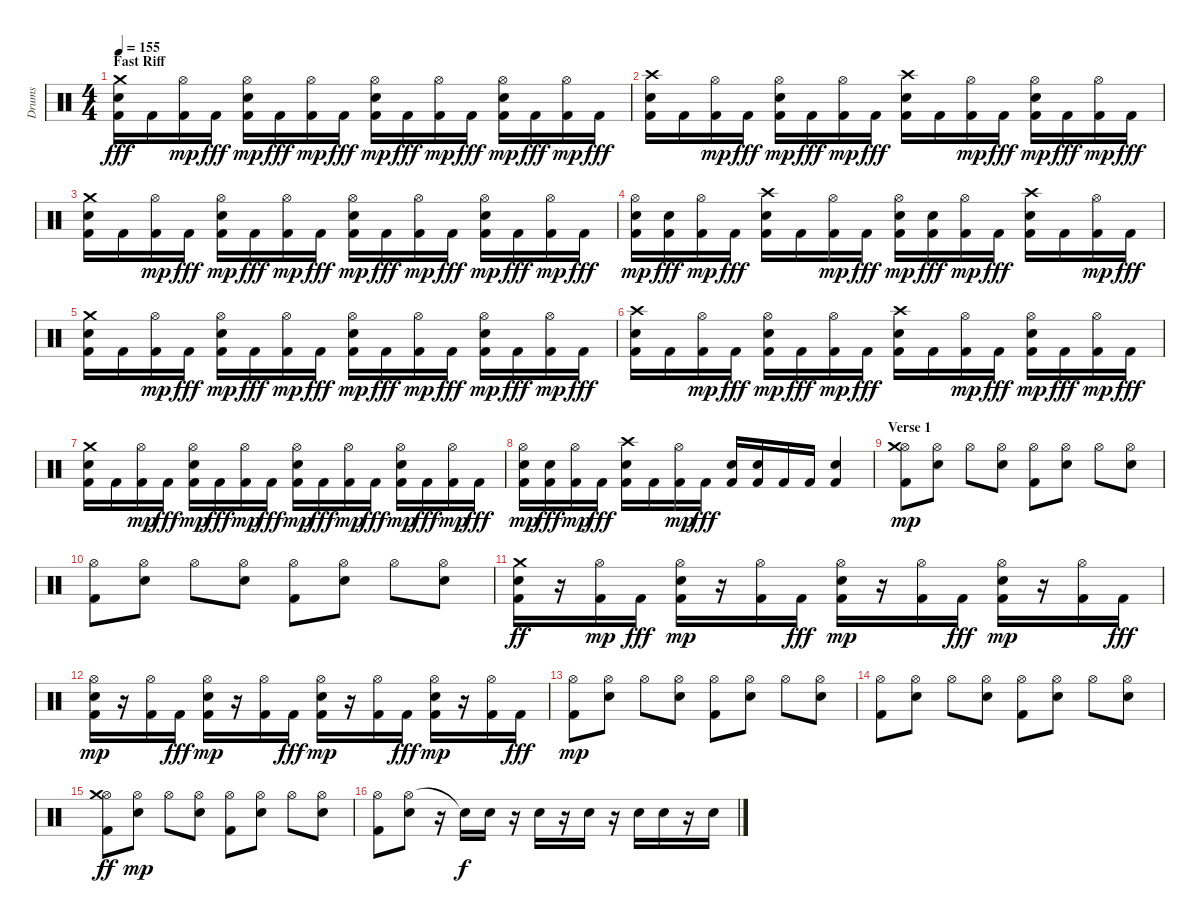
\track ("Drums" "Drums") {instrument percussion}
\staff {score}
\articulation defaults
\ts (4 4)
\section ("" "Fast Riff")
\tempo 155
\clef neutral
\ks c
("Kick (hit) 2" "Snare (hit) 2" "Crash medium (hit)").16{dy fff} "Kick (hit) 2".16 ("Kick (hit) 2" "Hi-Hat (open)").16{dy mp} "Kick (hit) 2".16{dy fff} ("Kick (hit) 2" "Hi-Hat (open)" "Snare (hit) 2").16{dy mp} "Kick (hit) 2".16{dy fff} ("Kick (hit) 2" "Hi-Hat (open)").16{dy mp} "Kick (hit) 2".16{dy fff} ("Kick (hit) 2" "Hi-Hat (open)" "Snare (hit) 2").16{dy mp} "Kick (hit) 2".16{dy fff} ("Kick (hit) 2" "Hi-Hat (open)").16{dy mp} "Kick (hit) 2".16{dy fff} ("Kick (hit) 2" "Hi-Hat (open)" "Snare (hit) 2").16{dy mp} "Kick (hit) 2".16{dy fff} ("Kick (hit) 2" "Hi-Hat (open)").16{dy mp} "Kick (hit) 2".16{dy fff} |
("Kick (hit) 2" "Snare (hit) 2" "Crash high (hit)").16 "Kick (hit) 2".16 ("Kick (hit) 2" "Hi-Hat (open)").16{dy mp} "Kick (hit) 2".16{dy fff} ("Kick (hit) 2" "Hi-Hat (open)" "Snare (hit) 2").16{dy mp} "Kick (hit) 2".16{dy fff} ("Kick (hit) 2" "Hi-Hat (open)").16{dy mp} "Kick (hit) 2".16{dy fff} ("Kick (hit) 2" "Snare (hit) 2" "Crash high (hit)").16 "Kick (hit) 2".16 ("Kick (hit) 2" "Hi-Hat (open)").16{dy mp} "Kick (hit) 2".16{dy fff} ("Kick (hit) 2" "Hi-Hat (open)" "Snare (hit) 2").16{dy mp} "Kick (hit) 2".16{dy fff} ("Kick (hit) 2" "Hi-Hat (open)").16{dy mp} "Kick (hit) 2".16{dy fff} |
("Kick (hit) 2" "Snare (hit) 2" "Crash medium (hit)").16 "Kick (hit) 2".16 ("Kick (hit) 2" "Hi-Hat (open)").16{dy mp} "Kick (hit) 2".16{dy fff} ("Kick (hit) 2" "Hi-Hat (open)" "Snare (hit) 2").16{dy mp} "Kick (hit) 2".16{dy fff} ("Kick (hit) 2" "Hi-Hat (open)").16{dy mp} "Kick (hit) 2".16{dy fff} ("Kick (hit) 2" "Hi-Hat (open)" "Snare (hit) 2").16{dy mp} "Kick (hit) 2".16{dy fff} ("Kick (hit) 2" "Hi-Hat (open)").16{dy mp} "Kick (hit) 2".16{dy fff} ("Kick (hit) 2" "Hi-Hat (open)" "Snare (hit) 2").16{dy mp} "Kick (hit) 2".16{dy fff} ("Kick (hit) 2" "Hi-Hat (open)").16{dy mp} "Kick (hit) 2".16{dy fff} |
("Kick (hit) 2" "Hi-Hat (open)" "Snare (hit) 2").16{dy mp} ("Kick (hit) 2" "Snare (hit) 2").16{dy fff} ("Kick (hit) 2" "Hi-Hat (open)").16{dy mp} "Kick (hit) 2".16{dy fff} ("Kick (hit) 2" "Snare (hit) 2" "Crash high (hit)").16 "Kick (hit) 2".16 ("Kick (hit) 2" "Hi-Hat (open)").16{dy mp} "Kick (hit) 2".16{dy fff} ("Kick (hit) 2" "Hi-Hat (open)" "Snare (hit) 2").16{dy mp} ("Kick (hit) 2" "Snare (hit) 2").16{dy fff} ("Kick (hit) 2" "Hi-Hat (open)").16{dy mp} "Kick (hit) 2".16{dy fff} ("Kick (hit) 2" "Snare (hit) 2" "Crash high (hit)").16 "Kick (hit) 2".16 ("Kick (hit) 2" "Hi-Hat (open)").16{dy mp} "Kick (hit) 2".16{dy fff} |
("Kick (hit) 2" "Snare (hit) 2" "Crash medium (hit)").16 "Kick (hit) 2".16 ("Kick (hit) 2" "Hi-Hat (open)").16{dy mp} "Kick (hit) 2".16{dy fff} ("Kick (hit) 2" "Hi-Hat (open)" "Snare (hit) 2").16{dy mp} "Kick (hit) 2".16{dy fff} ("Kick (hit) 2" "Hi-Hat (open)").16{dy mp} "Kick (hit) 2".16{dy fff} ("Kick (hit) 2" "Hi-Hat (open)" "Snare (hit) 2").16{dy mp} "Kick (hit) 2".16{dy fff} ("Kick (hit) 2" "Hi-Hat (open)").16{dy mp} "Kick (hit) 2".16{dy fff} ("Kick (hit) 2" "Hi-Hat (open)" "Snare (hit) 2").16{dy mp} "Kick (hit) 2".16{dy fff} ("Kick (hit) 2" "Hi-Hat (open)").16{dy mp} "Kick (hit) 2".16{dy fff} |
("Kick (hit) 2" "Snare (hit) 2" "Crash high (hit)").16 "Kick (hit) 2".16 ("Kick (hit) 2" "Hi-Hat (open)").16{dy mp} "Kick (hit) 2".16{dy fff} ("Kick (hit) 2" "Hi-Hat (open)" "Snare (hit) 2").16{dy mp} "Kick (hit) 2".16{dy fff} ("Kick (hit) 2" "Hi-Hat (open)").16{dy mp} "Kick (hit) 2".16{dy fff} ("Kick (hit) 2" "Snare (hit) 2" "Crash high (hit)").16 "Kick (hit) 2".16 ("Kick (hit) 2" "Hi-Hat (open)").16{dy mp} "Kick (hit) 2".16{dy fff} ("Kick (hit) 2" "Hi-Hat (open)" "Snare (hit) 2").16{dy mp} "Kick (hit) 2".16{dy fff} ("Kick (hit) 2" "Hi-Hat (open)").16{dy mp} "Kick (hit) 2".16{dy fff} |
("Kick (hit) 2" "Snare (hit) 2" "Crash medium (hit)").16 "Kick (hit) 2".16 ("Kick (hit) 2" "Hi-Hat (open)").16{dy mp} "Kick (hit) 2".16{dy fff} ("Kick (hit) 2" "Hi-Hat (open)" "Snare (hit) 2").16{dy mp} "Kick (hit) 2".16{dy fff} ("Kick (hit) 2" "Hi-Hat (open)").16{dy mp} "Kick (hit) 2".16{dy fff} ("Kick (hit) 2" "Hi-Hat (open)" "Snare (hit) 2").16{dy mp} "Kick (hit) 2".16{dy fff} ("Kick (hit) 2" "Hi-Hat (open)").16{dy mp} "Kick (hit) 2".16{dy fff} ("Kick (hit) 2" "Hi-Hat (open)" "Snare (hit) 2").16{dy mp} "Kick (hit) 2".16{dy fff} ("Kick (hit) 2" "Hi-Hat (open)").16{dy mp} "Kick (hit) 2".16{dy fff} |
("Kick (hit) 2" "Hi-Hat (open)" "Snare (hit) 2").16{dy mp} ("Kick (hit) 2" "Snare (hit) 2").16{dy fff} ("Kick (hit) 2" "Hi-Hat (open)").16{dy mp} "Kick (hit) 2".16{dy fff} ("Kick (hit) 2" "Snare (hit) 2" "Crash high (hit)").16 "Kick (hit) 2".16 ("Kick (hit) 2" "Hi-Hat (open)").16{dy mp} "Kick (hit) 2".16{dy fff} ("Kick (hit) 2" "Snare (hit) 2").16 ("Kick (hit) 2" "Snare (hit) 2").16 "Kick (hit) 2".16 "Kick (hit) 2".16 ("Kick (hit) 2" "Snare (hit) 2").4 |
\section ("" "Verse 1")
("Kick (hit) 2" "Hi-Hat (open)" "Crash medium (hit)").8{dy mp} ("Hi-Hat (open)" "Snare (hit) 2").8 "Hi-Hat (open)".8 ("Hi-Hat (open)" "Snare (hit) 2").8 ("Kick (hit) 2" "Hi-Hat (open)").8 ("Hi-Hat (open)" "Snare (hit) 2").8 "Hi-Hat (open)".8 ("Hi-Hat (open)" "Snare (hit) 2").8 |
("Kick (hit) 2" "Hi-Hat (open)").8 ("Hi-Hat (open)" "Snare (hit) 2").8 "Hi-Hat (open)".8 ("Hi-Hat (open)" "Snare (hit) 2").8 ("Kick (hit) 2" "Hi-Hat (open)").8 ("Hi-Hat (open)" "Snare (hit) 2").8 "Hi-Hat (open)".8 ("Hi-Hat (open)" "Snare (hit) 2").8 |
("Kick (hit) 2" "Snare (hit) 2" "Crash medium (hit)").16{dy ff} r.16 ("Kick (hit) 2" "Hi-Hat (open)").16{dy mp} "Kick (hit) 2".16{dy fff} ("Kick (hit) 2" "Hi-Hat (open)" "Snare (hit) 2").16{dy mp} r.16 ("Kick (hit) 2" "Hi-Hat (open)").16 "Kick (hit) 2".16{dy fff} ("Kick (hit) 2" "Hi-Hat (open)" "Snare (hit) 2").16{dy mp} r.16 ("Kick (hit) 2" "Hi-Hat (open)").16 "Kick (hit) 2".16{dy fff} ("Kick (hit) 2" "Hi-Hat (open)" "Snare (hit) 2").16{dy mp} r.16 ("Kick (hit) 2" "Hi-Hat (open)").16 "Kick (hit) 2".16{dy fff} |
("Kick (hit) 2" "Hi-Hat (open)" "Snare (hit) 2").16{dy mp} r.16 ("Kick (hit) 2" "Hi-Hat (open)").16 "Kick (hit) 2".16{dy fff} ("Kick (hit) 2" "Hi-Hat (open)" "Snare (hit) 2").16{dy mp} r.16 ("Kick (hit) 2" "Hi-Hat (open)").16 "Kick (hit) 2".16{dy fff} ("Kick (hit) 2" "Hi-Hat (open)" "Snare (hit) 2").16{dy mp} r.16 ("Kick (hit) 2" "Hi-Hat (open)").16 "Kick (hit) 2".16{dy fff} ("Kick (hit) 2" "Hi-Hat (open)" "Snare (hit) 2").16{dy mp} r.16 ("Kick (hit) 2" "Hi-Hat (open)").16 "Kick (hit) 2".16{dy fff} |
("Kick (hit) 2" "Hi-Hat (open)").8{dy mp} ("Hi-Hat (open)" "Snare (hit) 2").8 "Hi-Hat (open)".8 ("Hi-Hat (open)" "Snare (hit) 2").8 ("Kick (hit) 2" "Hi-Hat (open)").8 ("Hi-Hat (open)" "Snare (hit) 2").8 "Hi-Hat (open)".8 ("Hi-Hat (open)" "Snare (hit) 2").8 |
("Kick (hit) 2" "Hi-Hat (open)").8 ("Hi-Hat (open)" "Snare (hit) 2").8 "Hi-Hat (open)".8 ("Hi-Hat (open)" "Snare (hit) 2").8 ("Kick (hit) 2" "Hi-Hat (open)").8 ("Hi-Hat (open)" "Snare (hit) 2").8 "Hi-Hat (open)".8 ("Hi-Hat (open)" "Snare (hit) 2").8 |
("Kick (hit) 2" "Hi-Hat (open)" "Crash medium (hit)").8{dy ff} ("Hi-Hat (open)" "Snare (hit) 2").8{dy mp} "Hi-Hat (open)".8 ("Hi-Hat (open)" "Snare (hit) 2").8 ("Kick (hit) 2" "Hi-Hat (open)").8 ("Hi-Hat (open)" "Snare (hit) 2").8 "Hi-Hat (open)".8 ("Hi-Hat (open)" "Snare (hit) 2").8 |
("Kick (hit) 2" "Hi-Hat (open)").8 ("Hi-Hat (open)" "Snare (hit) 2").8 r.16 "Snare (hit) 2"{t}.16{dy f} "Snare (hit) 2".16 r.16 "Snare (hit) 2".16 r.16 "Snare (hit) 2".16 r.16 "Snare (hit) 2".16 "Snare (hit) 2".16 r.16 "Snare (hit) 2".16
